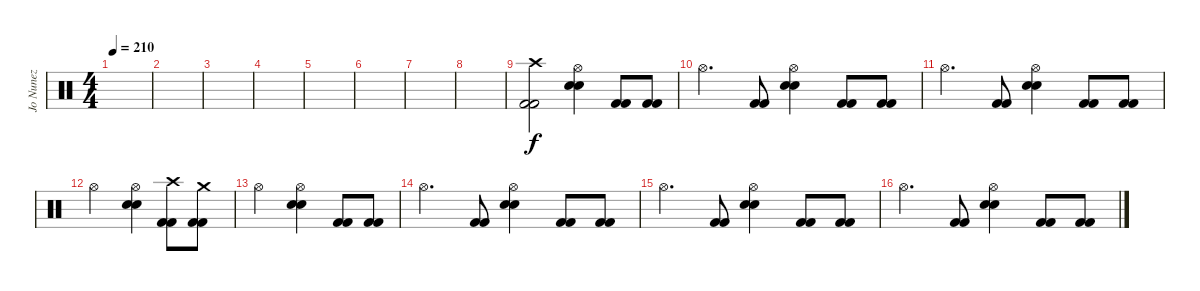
\track ("Jo Nunez" "Jo Nunez") {instrument percussion}
\staff {score}
\articulation defaults
\ts (4 4)
\tempo 210
\clef neutral
\ks c
|
|
|
|
|
|
|
|
("Kick (hit) 2" "Kick (hit) 2" "Crash high (hit)").2 ("Electric Snare (hit)" "Electric Snare (hit)" "Hi-Hat (open)").4 ("Kick (hit) 2" "Kick (hit) 2").8 ("Kick (hit) 2" "Kick (hit) 2").8 |
"Hi-Hat (open)".4{d} ("Kick (hit) 2" "Kick (hit) 2").8 ("Electric Snare (hit)" "Electric Snare (hit)" "Hi-Hat (open)").4 ("Kick (hit) 2" "Kick (hit) 2").8 ("Kick (hit) 2" "Kick (hit) 2").8 |
"Hi-Hat (open)".4{d} ("Kick (hit) 2" "Kick (hit) 2").8 ("Electric Snare (hit)" "Electric Snare (hit)" "Hi-Hat (open)").4 ("Kick (hit) 2" "Kick (hit) 2").8 ("Kick (hit) 2" "Kick (hit) 2").8 |
"Hi-Hat (open)".2 ("Electric Snare (hit)" "Electric Snare (hit)" "Hi-Hat (open)").4 ("Kick (hit) 2" "Kick (hit) 2" "Crash high (hit)").8 ("Kick (hit) 2" "Kick (hit) 2" "Crash medium (hit)").8 |
"Hi-Hat (open)".2 ("Electric Snare (hit)" "Electric Snare (hit)" "Hi-Hat (open)").4 ("Kick (hit) 2" "Kick (hit) 2").8 ("Kick (hit) 2" "Kick (hit) 2").8 |
"Hi-Hat (open)".4{d} ("Kick (hit) 2" "Kick (hit) 2").8 ("Electric Snare (hit)" "Electric Snare (hit)" "Hi-Hat (open)").4 ("Kick (hit) 2" "Kick (hit) 2").8 ("Kick (hit) 2" "Kick (hit) 2").8 |
"Hi-Hat (open)".4{d} ("Kick (hit) 2" "Kick (hit) 2").8 ("Electric Snare (hit)" "Electric Snare (hit)" "Hi-Hat (open)").4 ("Kick (hit) 2" "Kick (hit) 2").8 ("Kick (hit) 2" "Kick (hit) 2").8 |
"Hi-Hat (open)".4{d} ("Kick (hit) 2" "Kick (hit) 2").8 ("Electric Snare (hit)" "Electric Snare (hit)" "Hi-Hat (open)").4 ("Kick (hit) 2" "Kick (hit) 2").8 ("Kick (hit) 2" "Kick (hit) 2").8
